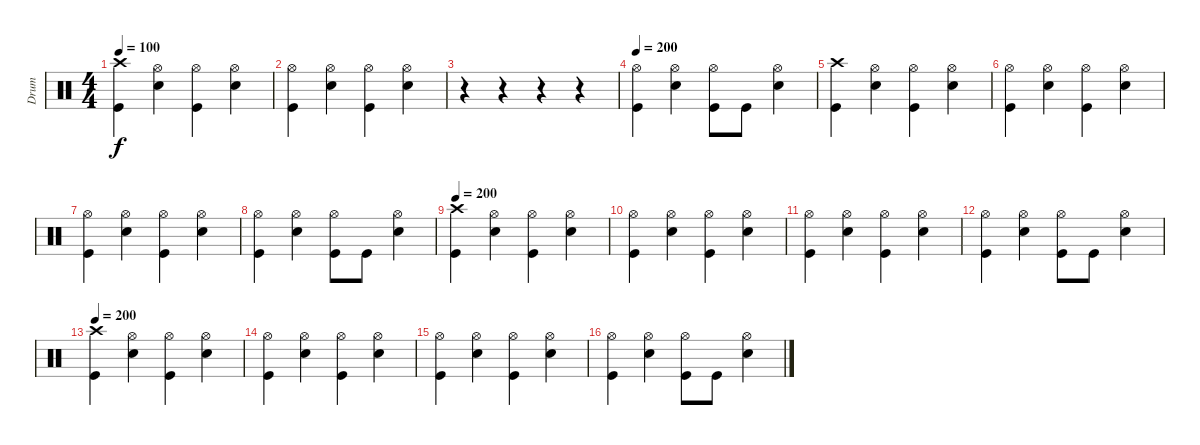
\track ("Drum" "Drum") {instrument percussion}
\staff {score}
\articulation defaults
\ts (4 4)
\tempo 100
\clef neutral
\ks c
("Crash high (hit)" "Kick (hit)").4{dy f} ("Hi-Hat (open)" "Electric Snare (hit)").4 ("Hi-Hat (open)" "Kick (hit)").4 ("Hi-Hat (open)" "Electric Snare (hit)").4 |
("Hi-Hat (open)" "Kick (hit)").4 ("Hi-Hat (open)" "Electric Snare (hit)").4 ("Hi-Hat (open)" "Kick (hit)").4 ("Hi-Hat (open)" "Electric Snare (hit)").4 |
r.4 r.4 r.4 r.4 |
\tempo 200
("Hi-Hat (open)" "Kick (hit)").4 ("Hi-Hat (open)" "Electric Snare (hit)").4 ("Hi-Hat (open)" "Kick (hit)").8 "Kick (hit)".8 ("Hi-Hat (open)" "Electric Snare (hit)").4 |
("Crash high (hit)" "Kick (hit)").4 ("Hi-Hat (open)" "Electric Snare (hit)").4 ("Hi-Hat (open)" "Kick (hit)").4 ("Hi-Hat (open)" "Electric Snare (hit)").4 |
("Hi-Hat (open)" "Kick (hit)").4 ("Hi-Hat (open)" "Electric Snare (hit)").4 ("Hi-Hat (open)" "Kick (hit)").4 ("Hi-Hat (open)" "Electric Snare (hit)").4 |
("Hi-Hat (open)" "Kick (hit)").4 ("Hi-Hat (open)" "Electric Snare (hit)").4 ("Hi-Hat (open)" "Kick (hit)").4 ("Hi-Hat (open)" "Electric Snare (hit)").4 |
("Hi-Hat (open)" "Kick (hit)").4 ("Hi-Hat (open)" "Electric Snare (hit)").4 ("Hi-Hat (open)" "Kick (hit)").8 "Kick (hit)".8 ("Hi-Hat (open)" "Electric Snare (hit)").4 |
\tempo 200
("Crash high (hit)" "Kick (hit)").4 ("Hi-Hat (open)" "Electric Snare (hit)").4 ("Hi-Hat (open)" "Kick (hit)").4 ("Hi-Hat (open)" "Electric Snare (hit)").4 |
("Hi-Hat (open)" "Kick (hit)").4 ("Hi-Hat (open)" "Electric Snare (hit)").4 ("Hi-Hat (open)" "Kick (hit)").4 ("Hi-Hat (open)" "Electric Snare (hit)").4 |
("Hi-Hat (open)" "Kick (hit)").4 ("Hi-Hat (open)" "Electric Snare (hit)").4 ("Hi-Hat (open)" "Kick (hit)").4 ("Hi-Hat (open)" "Electric Snare (hit)").4 |
("Hi-Hat (open)" "Kick (hit)").4 ("Hi-Hat (open)" "Electric Snare (hit)").4 ("Hi-Hat (open)" "Kick (hit)").8 "Kick (hit)".8 ("Hi-Hat (open)" "Electric Snare (hit)").4 |
\tempo 200
("Crash high (hit)" "Kick (hit)").4 ("Hi-Hat (open)" "Electric Snare (hit)").4 ("Hi-Hat (open)" "Kick (hit)").4 ("Hi-Hat (open)" "Electric Snare (hit)").4 |
("Hi-Hat (open)" "Kick (hit)").4 ("Hi-Hat (open)" "Electric Snare (hit)").4 ("Hi-Hat (open)" "Kick (hit)").4 ("Hi-Hat (open)" "Electric Snare (hit)").4 |
("Hi-Hat (open)" "Kick (hit)").4 ("Hi-Hat (open)" "Electric Snare (hit)").4 ("Hi-Hat (open)" "Kick (hit)").4 ("Hi-Hat (open)" "Electric Snare (hit)").4 |
("Hi-Hat (open)" "Kick (hit)").4 ("Hi-Hat (open)" "Electric Snare (hit)").4 ("Hi-Hat (open)" "Kick (hit)").8 "Kick (hit)".8 ("Hi-Hat (open)" "Electric Snare (hit)").4
